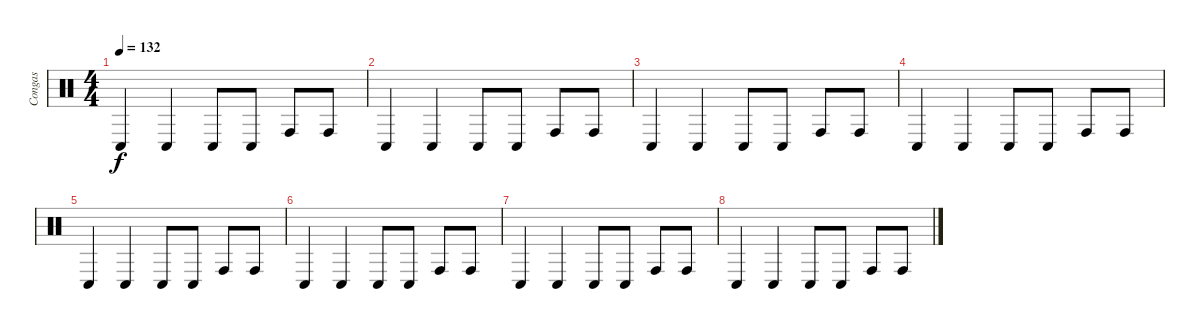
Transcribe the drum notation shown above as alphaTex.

\track ("Congas" "Congas") {instrument percussion}
\staff {score}
\articulation defaults
\ts (4 4)
\tempo 132
\clef neutral
\ks c "Conga low (hit)".4{dy f} "Conga low (hit)".4 "Conga low (hit)".8 "Conga low (hit)".8 "Conga high (hit)".8 "Conga high (hit)".8
|
"Conga low (hit)".4 "Conga low (hit)".4 "Conga low (hit)".8 "Conga low (hit)".8 "Conga high (hit)".8 "Conga high (hit)".8 |
"Conga low (hit)".4 "Conga low (hit)".4 "Conga low (hit)".8 "Conga low (hit)".8 "Conga high (hit)".8 "Conga high (hit)".8 |
"Conga low (hit)".4 "Conga low (hit)".4 "Conga low (hit)".8 "Conga low (hit)".8 "Conga high (hit)".8 "Conga high (hit)".8 |
"Conga low (hit)".4 "Conga low (hit)".4 "Conga low (hit)".8 "Conga low (hit)".8 "Conga high (hit)".8 "Conga high (hit)".8 |
"Conga low (hit)".4 "Conga low (hit)".4 "Conga low (hit)".8 "Conga low (hit)".8 "Conga high (hit)".8 "Conga high (hit)".8 |
"Conga low (hit)".4 "Conga low (hit)".4 "Conga low (hit)".8 "Conga low (hit)".8 "Conga high (hit)".8 "Conga high (hit)".8 |
"Conga low (hit)".4 "Conga low (hit)".4 "Conga low (hit)".8 "Conga low (hit)".8 "Conga high (hit)".8 "Conga high (hit)".8
